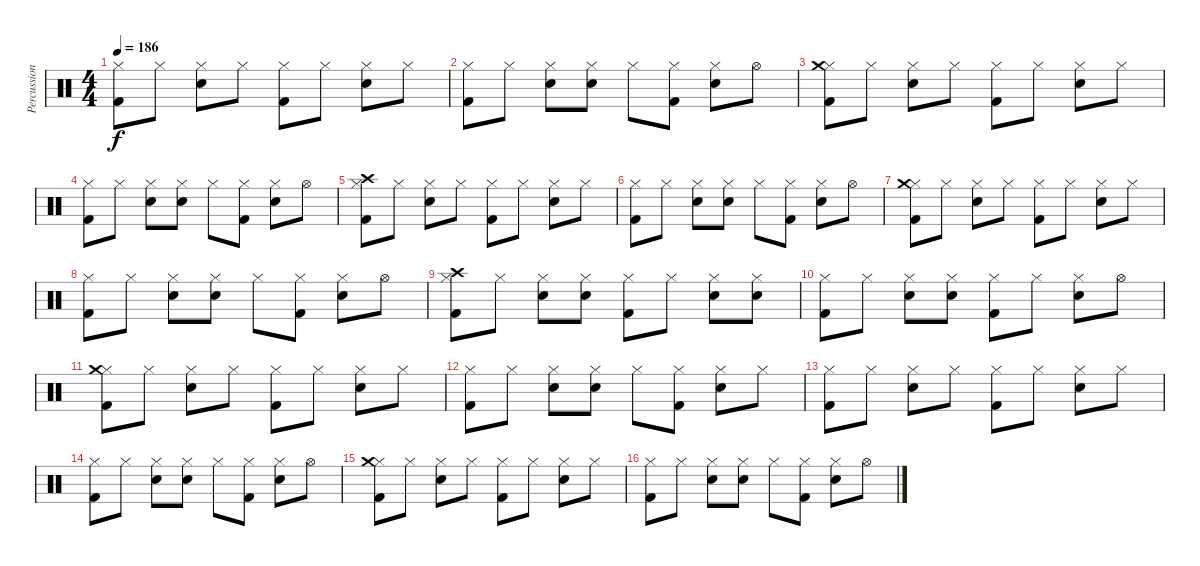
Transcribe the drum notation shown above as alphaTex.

\track ("Percussions" "Percussion") {instrument percussion}
\staff {score}
\articulation defaults
\ts (4 4)
\tempo 186
\clef neutral
\ks c
("Hi-Hat (closed)" "Kick (hit) 2").8{dy f} "Hi-Hat (closed)".8 ("Hi-Hat (closed)" "Electric Snare (hit)").8 "Hi-Hat (closed)".8 ("Hi-Hat (closed)" "Kick (hit) 2").8 "Hi-Hat (closed)".8 ("Hi-Hat (closed)" "Electric Snare (hit)").8 "Hi-Hat (closed)".8 |
("Hi-Hat (closed)" "Kick (hit) 2").8 "Hi-Hat (closed)".8 ("Hi-Hat (closed)" "Electric Snare (hit)").8 ("Hi-Hat (closed)" "Electric Snare (hit)").8 "Hi-Hat (closed)".8 ("Hi-Hat (closed)" "Kick (hit) 2").8 ("Hi-Hat (closed)" "Electric Snare (hit)").8 "Hi-Hat (open)".8 |
("Hi-Hat (closed)" "Crash medium (hit)" "Kick (hit) 2").8 "Hi-Hat (closed)".8 ("Hi-Hat (closed)" "Electric Snare (hit)").8 "Hi-Hat (closed)".8 ("Hi-Hat (closed)" "Kick (hit) 2").8 "Hi-Hat (closed)".8 ("Hi-Hat (closed)" "Electric Snare (hit)").8 "Hi-Hat (closed)".8 |
("Hi-Hat (closed)" "Kick (hit) 2").8 "Hi-Hat (closed)".8 ("Hi-Hat (closed)" "Electric Snare (hit)").8 ("Hi-Hat (closed)" "Electric Snare (hit)").8 "Hi-Hat (closed)".8 ("Hi-Hat (closed)" "Kick (hit) 2").8 ("Hi-Hat (closed)" "Electric Snare (hit)").8 "Hi-Hat (open)".8 |
("Hi-Hat (closed)" "Crash high (hit)" "Kick (hit) 2").8 "Hi-Hat (closed)".8 ("Hi-Hat (closed)" "Electric Snare (hit)").8 "Hi-Hat (closed)".8 ("Hi-Hat (closed)" "Kick (hit) 2").8 "Hi-Hat (closed)".8 ("Hi-Hat (closed)" "Electric Snare (hit)").8 "Hi-Hat (closed)".8 |
("Hi-Hat (closed)" "Kick (hit) 2").8 "Hi-Hat (closed)".8 ("Hi-Hat (closed)" "Electric Snare (hit)").8 ("Hi-Hat (closed)" "Electric Snare (hit)").8 "Hi-Hat (closed)".8 ("Hi-Hat (closed)" "Kick (hit) 2").8 ("Hi-Hat (closed)" "Electric Snare (hit)").8 "Hi-Hat (open)".8 |
("Hi-Hat (closed)" "Crash medium (hit)" "Kick (hit) 2").8 "Hi-Hat (closed)".8 ("Hi-Hat (closed)" "Electric Snare (hit)").8 "Hi-Hat (closed)".8 ("Hi-Hat (closed)" "Kick (hit) 2").8 "Hi-Hat (closed)".8 ("Hi-Hat (closed)" "Electric Snare (hit)").8 "Hi-Hat (closed)".8 |
("Hi-Hat (closed)" "Kick (hit) 2").8 "Hi-Hat (closed)".8 ("Hi-Hat (closed)" "Electric Snare (hit)").8 ("Hi-Hat (closed)" "Electric Snare (hit)").8 "Hi-Hat (closed)".8 ("Hi-Hat (closed)" "Kick (hit) 2").8 ("Hi-Hat (closed)" "Electric Snare (hit)").8 "Hi-Hat (open)".8 |
("Hi-Hat (closed)" "Crash high (hit)" "Kick (hit) 2").8 "Hi-Hat (closed)".8 ("Hi-Hat (closed)" "Electric Snare (hit)").8 ("Hi-Hat (closed)" "Electric Snare (hit)").8 ("Hi-Hat (closed)" "Kick (hit) 2").8 "Hi-Hat (closed)".8 ("Hi-Hat (closed)" "Electric Snare (hit)").8 ("Hi-Hat (closed)" "Electric Snare (hit)").8 |
("Hi-Hat (closed)" "Kick (hit) 2").8 "Hi-Hat (closed)".8 ("Hi-Hat (closed)" "Electric Snare (hit)").8 ("Hi-Hat (closed)" "Electric Snare (hit)").8 ("Hi-Hat (closed)" "Kick (hit) 2").8 "Hi-Hat (closed)".8 ("Hi-Hat (closed)" "Electric Snare (hit)").8 "Hi-Hat (open)".8 |
("Hi-Hat (closed)" "Crash medium (hit)" "Kick (hit) 2").8 "Hi-Hat (closed)".8 ("Hi-Hat (closed)" "Electric Snare (hit)").8 "Hi-Hat (closed)".8 ("Hi-Hat (closed)" "Kick (hit) 2").8 "Hi-Hat (closed)".8 ("Hi-Hat (closed)" "Electric Snare (hit)").8 "Hi-Hat (closed)".8 |
("Hi-Hat (closed)" "Kick (hit) 2").8 "Hi-Hat (closed)".8 ("Hi-Hat (closed)" "Electric Snare (hit)").8 ("Hi-Hat (closed)" "Electric Snare (hit)").8 "Hi-Hat (closed)".8 ("Hi-Hat (closed)" "Kick (hit) 2").8 ("Hi-Hat (closed)" "Electric Snare (hit)").8 "Hi-Hat (closed)".8 |
("Hi-Hat (closed)" "Kick (hit) 2").8 "Hi-Hat (closed)".8 ("Hi-Hat (closed)" "Electric Snare (hit)").8 "Hi-Hat (closed)".8 ("Hi-Hat (closed)" "Kick (hit) 2").8 "Hi-Hat (closed)".8 ("Hi-Hat (closed)" "Electric Snare (hit)").8 "Hi-Hat (closed)".8 |
("Hi-Hat (closed)" "Kick (hit) 2").8 "Hi-Hat (closed)".8 ("Hi-Hat (closed)" "Electric Snare (hit)").8 ("Hi-Hat (closed)" "Electric Snare (hit)").8 "Hi-Hat (closed)".8 ("Hi-Hat (closed)" "Kick (hit) 2").8 ("Hi-Hat (closed)" "Electric Snare (hit)").8 "Hi-Hat (open)".8 |
("Hi-Hat (closed)" "Crash medium (hit)" "Kick (hit) 2").8 "Hi-Hat (closed)".8 ("Hi-Hat (closed)" "Electric Snare (hit)").8 "Hi-Hat (closed)".8 ("Hi-Hat (closed)" "Kick (hit) 2").8 "Hi-Hat (closed)".8 ("Hi-Hat (closed)" "Electric Snare (hit)").8 "Hi-Hat (closed)".8 |
("Hi-Hat (closed)" "Kick (hit) 2").8 "Hi-Hat (closed)".8 ("Hi-Hat (closed)" "Electric Snare (hit)").8 ("Hi-Hat (closed)" "Electric Snare (hit)").8 "Hi-Hat (closed)".8 ("Hi-Hat (closed)" "Kick (hit) 2").8 ("Hi-Hat (closed)" "Electric Snare (hit)").8 "Hi-Hat (open)".8
